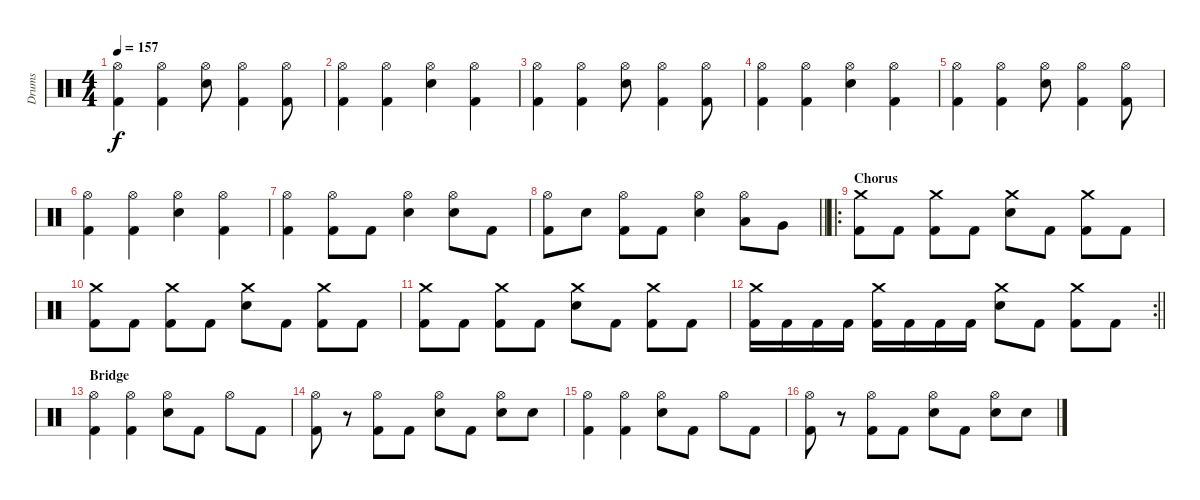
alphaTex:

\track ("Drums" "Drums") {instrument percussion}
\staff {score}
\articulation defaults
\ts (4 4)
\tempo 157
\clef neutral
\ks c
("Hi-Hat (open)" "Kick (hit) 2").4{dy f} ("Hi-Hat (open)" "Kick (hit) 2").4 ("Hi-Hat (open)" "Electric Snare (hit)").8 ("Hi-Hat (open)" "Kick (hit) 2").4 ("Hi-Hat (open)" "Kick (hit) 2").8 |
("Hi-Hat (open)" "Kick (hit) 2").4 ("Hi-Hat (open)" "Kick (hit) 2").4 ("Hi-Hat (open)" "Electric Snare (hit)").4 ("Hi-Hat (open)" "Kick (hit) 2").4 |
("Hi-Hat (open)" "Kick (hit) 2").4 ("Hi-Hat (open)" "Kick (hit) 2").4 ("Hi-Hat (open)" "Electric Snare (hit)").8 ("Hi-Hat (open)" "Kick (hit) 2").4 ("Hi-Hat (open)" "Kick (hit) 2").8 |
("Hi-Hat (open)" "Kick (hit) 2").4 ("Hi-Hat (open)" "Kick (hit) 2").4 ("Hi-Hat (open)" "Electric Snare (hit)").4 ("Hi-Hat (open)" "Kick (hit) 2").4 |
("Hi-Hat (open)" "Kick (hit) 2").4 ("Hi-Hat (open)" "Kick (hit) 2").4 ("Hi-Hat (open)" "Electric Snare (hit)").8 ("Hi-Hat (open)" "Kick (hit) 2").4 ("Hi-Hat (open)" "Kick (hit) 2").8 |
("Hi-Hat (open)" "Kick (hit) 2").4 ("Hi-Hat (open)" "Kick (hit) 2").4 ("Hi-Hat (open)" "Electric Snare (hit)").4 ("Hi-Hat (open)" "Kick (hit) 2").4 |
("Hi-Hat (open)" "Kick (hit) 2").4 ("Hi-Hat (open)" "Kick (hit) 2").8 "Kick (hit) 2".8 ("Hi-Hat (open)" "Electric Snare (hit)").4 ("Hi-Hat (open)" "Electric Snare (hit)").8 "Kick (hit) 2".8 |
\barLineRight lightlight
("Hi-Hat (open)" "Kick (hit) 2").8 "Electric Snare (hit)".8 ("Hi-Hat (open)" "Kick (hit) 2").8 "Kick (hit) 2".8 ("Hi-Hat (open)" "Electric Snare (hit)").4 ("Hi-Hat (open)" "Low Tom (hit)").8 "Very Low Tom (hit)".8 |
\ro
\section ("" "Chorus")
("Crash medium (hit)" "Kick (hit) 2").8 "Kick (hit) 2".8 ("Crash medium (hit)" "Kick (hit) 2").8 "Kick (hit) 2".8 ("Crash medium (hit)" "Electric Snare (hit)").8 "Kick (hit) 2".8 ("Crash medium (hit)" "Kick (hit) 2").8 "Kick (hit) 2".8 |
("Crash medium (hit)" "Kick (hit) 2").8 "Kick (hit) 2".8 ("Crash medium (hit)" "Kick (hit) 2").8 "Kick (hit) 2".8 ("Crash medium (hit)" "Electric Snare (hit)").8 "Kick (hit) 2".8 ("Crash medium (hit)" "Kick (hit) 2").8 "Kick (hit) 2".8 |
("Crash medium (hit)" "Kick (hit) 2").8 "Kick (hit) 2".8 ("Crash medium (hit)" "Kick (hit) 2").8 "Kick (hit) 2".8 ("Crash medium (hit)" "Electric Snare (hit)").8 "Kick (hit) 2".8 ("Crash medium (hit)" "Kick (hit) 2").8 "Kick (hit) 2".8 |
\rc 2
\barLineRight lightlight
("Crash medium (hit)" "Kick (hit) 2").16 "Kick (hit) 2".16 "Kick (hit) 2".16 "Kick (hit) 2".16 ("Crash medium (hit)" "Kick (hit) 2").16 "Kick (hit) 2".16 "Kick (hit) 2".16 "Kick (hit) 2".16 ("Crash medium (hit)" "Electric Snare (hit)").8 "Kick (hit) 2".8 ("Crash medium (hit)" "Kick (hit) 2").8 "Kick (hit) 2".8 |
\section ("" "Bridge")
("Hi-Hat (open)" "Kick (hit) 2").4 ("Hi-Hat (open)" "Kick (hit) 2").4 ("Hi-Hat (open)" "Electric Snare (hit)").8 "Kick (hit) 2".8 "Hi-Hat (open)".8 "Kick (hit) 2".8 |
("Hi-Hat (open)" "Kick (hit) 2").8 r.8 ("Hi-Hat (open)" "Kick (hit) 2").8 "Kick (hit) 2".8 ("Hi-Hat (open)" "Electric Snare (hit)").8 "Kick (hit) 2".8 ("Hi-Hat (open)" "Electric Snare (hit)").8 "Electric Snare (hit)".8 |
("Hi-Hat (open)" "Kick (hit) 2").4 ("Hi-Hat (open)" "Kick (hit) 2").4 ("Hi-Hat (open)" "Electric Snare (hit)").8 "Kick (hit) 2".8 "Hi-Hat (open)".8 "Kick (hit) 2".8 |
("Hi-Hat (open)" "Kick (hit) 2").8 r.8 ("Hi-Hat (open)" "Kick (hit) 2").8 "Kick (hit) 2".8 ("Hi-Hat (open)" "Electric Snare (hit)").8 "Kick (hit) 2".8 ("Hi-Hat (open)" "Electric Snare (hit)").8 "Electric Snare (hit)".8
